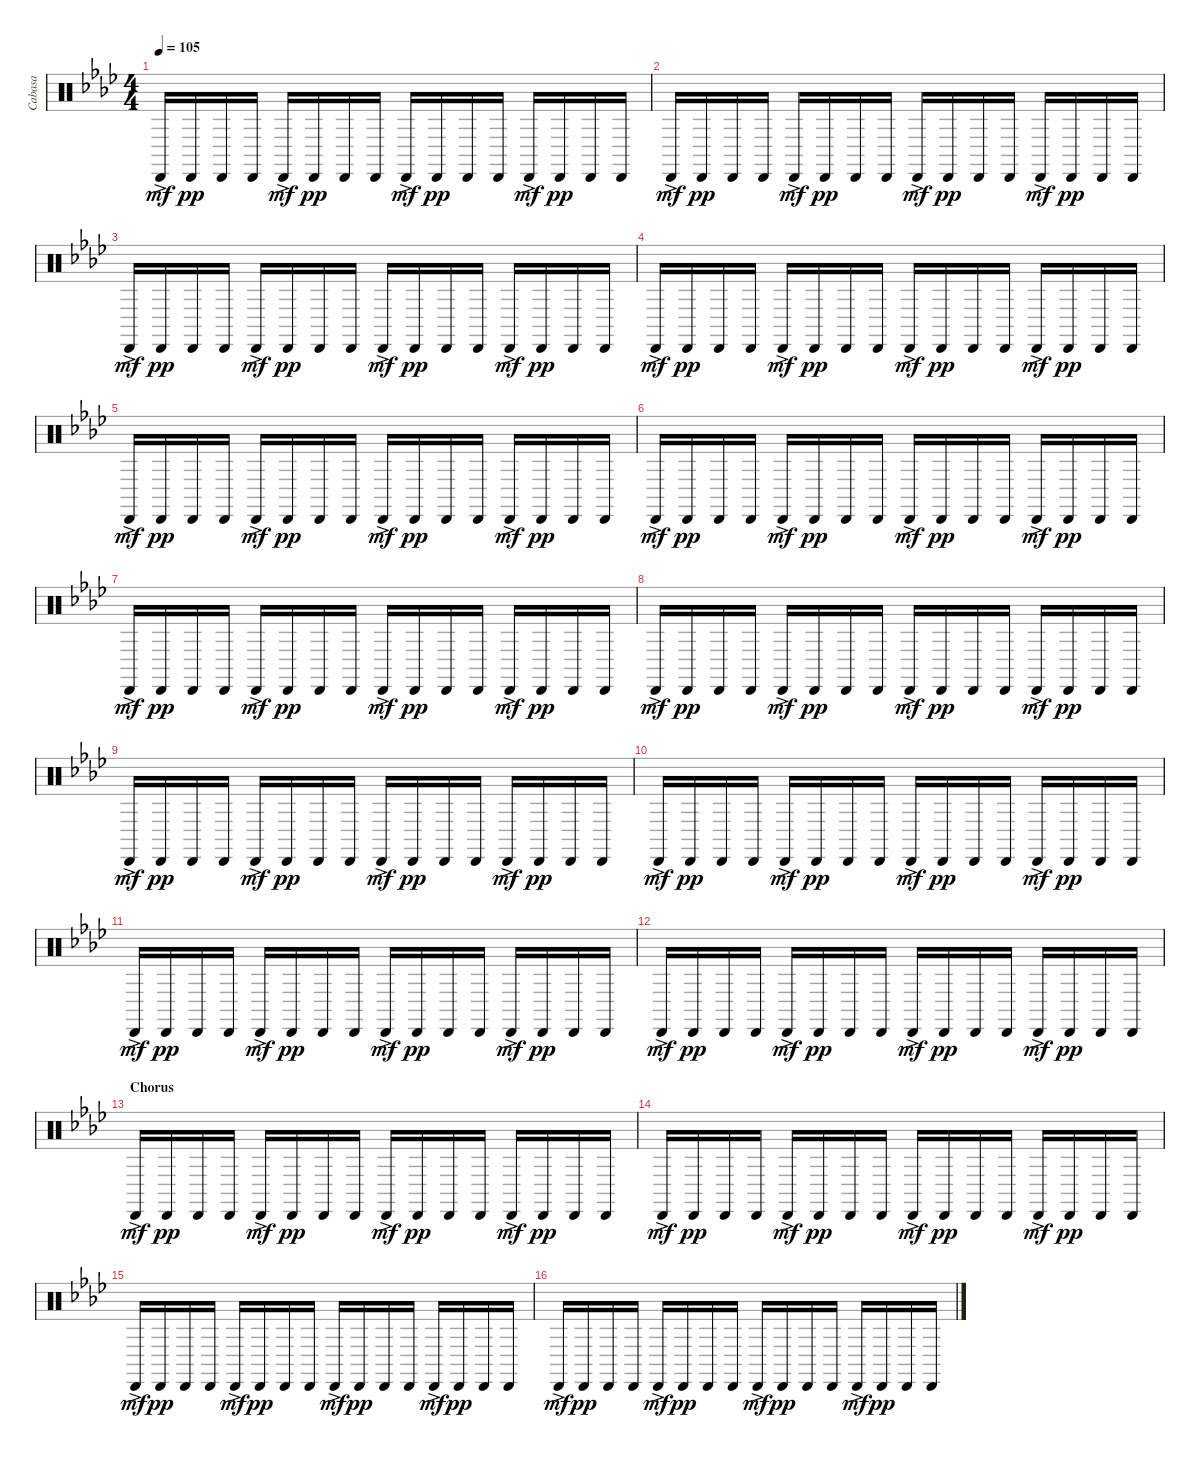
\track ("Cabasa" "Cabasa") {instrument percussion}
\staff {score}
\articulation defaults
\ts (4 4)
\tempo 105
\clef neutral
\ks ab "Cabasa (hit)"{ac}.16{dy mf} "Cabasa (hit)".16{dy pp} "Cabasa (hit)".16 "Cabasa (hit)".16 "Cabasa (hit)"{ac}.16{dy mf} "Cabasa (hit)".16{dy pp} "Cabasa (hit)".16 "Cabasa (hit)".16 "Cabasa (hit)"{ac}.16{dy mf} "Cabasa (hit)".16{dy pp} "Cabasa (hit)".16 "Cabasa (hit)".16 "Cabasa (hit)"{ac}.16{dy mf} "Cabasa (hit)".16{dy pp} "Cabasa (hit)".16 "Cabasa (hit)".16
|
"Cabasa (hit)"{ac}.16{dy mf} "Cabasa (hit)".16{dy pp} "Cabasa (hit)".16 "Cabasa (hit)".16 "Cabasa (hit)"{ac}.16{dy mf} "Cabasa (hit)".16{dy pp} "Cabasa (hit)".16 "Cabasa (hit)".16 "Cabasa (hit)"{ac}.16{dy mf} "Cabasa (hit)".16{dy pp} "Cabasa (hit)".16 "Cabasa (hit)".16 "Cabasa (hit)"{ac}.16{dy mf} "Cabasa (hit)".16{dy pp} "Cabasa (hit)".16 "Cabasa (hit)".16 |
"Cabasa (hit)"{ac}.16{dy mf} "Cabasa (hit)".16{dy pp} "Cabasa (hit)".16 "Cabasa (hit)".16 "Cabasa (hit)"{ac}.16{dy mf} "Cabasa (hit)".16{dy pp} "Cabasa (hit)".16 "Cabasa (hit)".16 "Cabasa (hit)"{ac}.16{dy mf} "Cabasa (hit)".16{dy pp} "Cabasa (hit)".16 "Cabasa (hit)".16 "Cabasa (hit)"{ac}.16{dy mf} "Cabasa (hit)".16{dy pp} "Cabasa (hit)".16 "Cabasa (hit)".16 |
"Cabasa (hit)"{ac}.16{dy mf} "Cabasa (hit)".16{dy pp} "Cabasa (hit)".16 "Cabasa (hit)".16 "Cabasa (hit)"{ac}.16{dy mf} "Cabasa (hit)".16{dy pp} "Cabasa (hit)".16 "Cabasa (hit)".16 "Cabasa (hit)"{ac}.16{dy mf} "Cabasa (hit)".16{dy pp} "Cabasa (hit)".16 "Cabasa (hit)".16 "Cabasa (hit)"{ac}.16{dy mf} "Cabasa (hit)".16{dy pp} "Cabasa (hit)".16 "Cabasa (hit)".16 |
"Cabasa (hit)"{ac}.16{dy mf} "Cabasa (hit)".16{dy pp} "Cabasa (hit)".16 "Cabasa (hit)".16 "Cabasa (hit)"{ac}.16{dy mf} "Cabasa (hit)".16{dy pp} "Cabasa (hit)".16 "Cabasa (hit)".16 "Cabasa (hit)"{ac}.16{dy mf} "Cabasa (hit)".16{dy pp} "Cabasa (hit)".16 "Cabasa (hit)".16 "Cabasa (hit)"{ac}.16{dy mf} "Cabasa (hit)".16{dy pp} "Cabasa (hit)".16 "Cabasa (hit)".16 |
"Cabasa (hit)"{ac}.16{dy mf} "Cabasa (hit)".16{dy pp} "Cabasa (hit)".16 "Cabasa (hit)".16 "Cabasa (hit)"{ac}.16{dy mf} "Cabasa (hit)".16{dy pp} "Cabasa (hit)".16 "Cabasa (hit)".16 "Cabasa (hit)"{ac}.16{dy mf} "Cabasa (hit)".16{dy pp} "Cabasa (hit)".16 "Cabasa (hit)".16 "Cabasa (hit)"{ac}.16{dy mf} "Cabasa (hit)".16{dy pp} "Cabasa (hit)".16 "Cabasa (hit)".16 |
"Cabasa (hit)"{ac}.16{dy mf} "Cabasa (hit)".16{dy pp} "Cabasa (hit)".16 "Cabasa (hit)".16 "Cabasa (hit)"{ac}.16{dy mf} "Cabasa (hit)".16{dy pp} "Cabasa (hit)".16 "Cabasa (hit)".16 "Cabasa (hit)"{ac}.16{dy mf} "Cabasa (hit)".16{dy pp} "Cabasa (hit)".16 "Cabasa (hit)".16 "Cabasa (hit)"{ac}.16{dy mf} "Cabasa (hit)".16{dy pp} "Cabasa (hit)".16 "Cabasa (hit)".16 |
"Cabasa (hit)"{ac}.16{dy mf} "Cabasa (hit)".16{dy pp} "Cabasa (hit)".16 "Cabasa (hit)".16 "Cabasa (hit)"{ac}.16{dy mf} "Cabasa (hit)".16{dy pp} "Cabasa (hit)".16 "Cabasa (hit)".16 "Cabasa (hit)"{ac}.16{dy mf} "Cabasa (hit)".16{dy pp} "Cabasa (hit)".16 "Cabasa (hit)".16 "Cabasa (hit)"{ac}.16{dy mf} "Cabasa (hit)".16{dy pp} "Cabasa (hit)".16 "Cabasa (hit)".16 |
"Cabasa (hit)"{ac}.16{dy mf} "Cabasa (hit)".16{dy pp} "Cabasa (hit)".16 "Cabasa (hit)".16 "Cabasa (hit)"{ac}.16{dy mf} "Cabasa (hit)".16{dy pp} "Cabasa (hit)".16 "Cabasa (hit)".16 "Cabasa (hit)"{ac}.16{dy mf} "Cabasa (hit)".16{dy pp} "Cabasa (hit)".16 "Cabasa (hit)".16 "Cabasa (hit)"{ac}.16{dy mf} "Cabasa (hit)".16{dy pp} "Cabasa (hit)".16 "Cabasa (hit)".16 |
"Cabasa (hit)"{ac}.16{dy mf} "Cabasa (hit)".16{dy pp} "Cabasa (hit)".16 "Cabasa (hit)".16 "Cabasa (hit)"{ac}.16{dy mf} "Cabasa (hit)".16{dy pp} "Cabasa (hit)".16 "Cabasa (hit)".16 "Cabasa (hit)"{ac}.16{dy mf} "Cabasa (hit)".16{dy pp} "Cabasa (hit)".16 "Cabasa (hit)".16 "Cabasa (hit)"{ac}.16{dy mf} "Cabasa (hit)".16{dy pp} "Cabasa (hit)".16 "Cabasa (hit)".16 |
"Cabasa (hit)"{ac}.16{dy mf} "Cabasa (hit)".16{dy pp} "Cabasa (hit)".16 "Cabasa (hit)".16 "Cabasa (hit)"{ac}.16{dy mf} "Cabasa (hit)".16{dy pp} "Cabasa (hit)".16 "Cabasa (hit)".16 "Cabasa (hit)"{ac}.16{dy mf} "Cabasa (hit)".16{dy pp} "Cabasa (hit)".16 "Cabasa (hit)".16 "Cabasa (hit)"{ac}.16{dy mf} "Cabasa (hit)".16{dy pp} "Cabasa (hit)".16 "Cabasa (hit)".16 |
"Cabasa (hit)"{ac}.16{dy mf} "Cabasa (hit)".16{dy pp} "Cabasa (hit)".16 "Cabasa (hit)".16 "Cabasa (hit)"{ac}.16{dy mf} "Cabasa (hit)".16{dy pp} "Cabasa (hit)".16 "Cabasa (hit)".16 "Cabasa (hit)"{ac}.16{dy mf} "Cabasa (hit)".16{dy pp} "Cabasa (hit)".16 "Cabasa (hit)".16 "Cabasa (hit)"{ac}.16{dy mf} "Cabasa (hit)".16{dy pp} "Cabasa (hit)".16 "Cabasa (hit)".16 |
\section ("" "Chorus")
"Cabasa (hit)"{ac}.16{dy mf} "Cabasa (hit)".16{dy pp} "Cabasa (hit)".16 "Cabasa (hit)".16 "Cabasa (hit)"{ac}.16{dy mf} "Cabasa (hit)".16{dy pp} "Cabasa (hit)".16 "Cabasa (hit)".16 "Cabasa (hit)"{ac}.16{dy mf} "Cabasa (hit)".16{dy pp} "Cabasa (hit)".16 "Cabasa (hit)".16 "Cabasa (hit)"{ac}.16{dy mf} "Cabasa (hit)".16{dy pp} "Cabasa (hit)".16 "Cabasa (hit)".16 |
"Cabasa (hit)"{ac}.16{dy mf} "Cabasa (hit)".16{dy pp} "Cabasa (hit)".16 "Cabasa (hit)".16 "Cabasa (hit)"{ac}.16{dy mf} "Cabasa (hit)".16{dy pp} "Cabasa (hit)".16 "Cabasa (hit)".16 "Cabasa (hit)"{ac}.16{dy mf} "Cabasa (hit)".16{dy pp} "Cabasa (hit)".16 "Cabasa (hit)".16 "Cabasa (hit)"{ac}.16{dy mf} "Cabasa (hit)".16{dy pp} "Cabasa (hit)".16 "Cabasa (hit)".16 |
"Cabasa (hit)"{ac}.16{dy mf} "Cabasa (hit)".16{dy pp} "Cabasa (hit)".16 "Cabasa (hit)".16 "Cabasa (hit)"{ac}.16{dy mf} "Cabasa (hit)".16{dy pp} "Cabasa (hit)".16 "Cabasa (hit)".16 "Cabasa (hit)"{ac}.16{dy mf} "Cabasa (hit)".16{dy pp} "Cabasa (hit)".16 "Cabasa (hit)".16 "Cabasa (hit)"{ac}.16{dy mf} "Cabasa (hit)".16{dy pp} "Cabasa (hit)".16 "Cabasa (hit)".16 |
"Cabasa (hit)"{ac}.16{dy mf} "Cabasa (hit)".16{dy pp} "Cabasa (hit)".16 "Cabasa (hit)".16 "Cabasa (hit)"{ac}.16{dy mf} "Cabasa (hit)".16{dy pp} "Cabasa (hit)".16 "Cabasa (hit)".16 "Cabasa (hit)"{ac}.16{dy mf} "Cabasa (hit)".16{dy pp} "Cabasa (hit)".16 "Cabasa (hit)".16 "Cabasa (hit)"{ac}.16{dy mf} "Cabasa (hit)".16{dy pp} "Cabasa (hit)".16 "Cabasa (hit)".16
